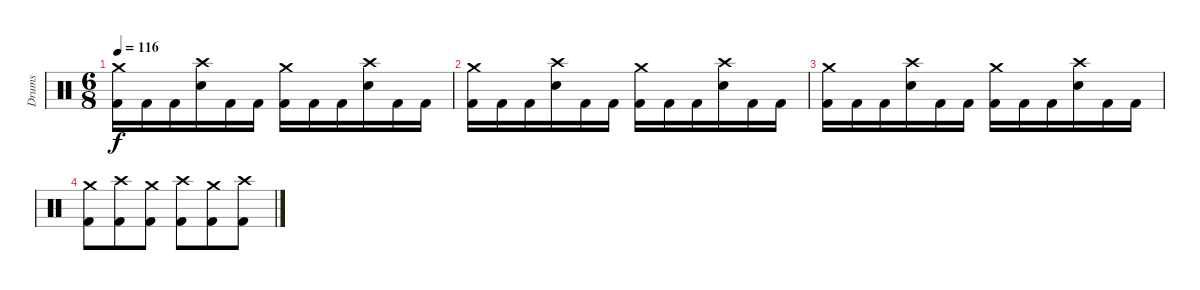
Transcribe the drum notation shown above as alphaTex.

\track ("Drums" "Drums") {instrument percussion}
\staff {score}
\articulation defaults
\ts (6 8)
\tempo 116
\clef neutral
\ks c
("Crash medium (hit)" "Kick (hit) 2").16{dy f} "Kick (hit) 2".16 "Kick (hit) 2".16 ("Crash high (hit)" "Electric Snare (hit)").16 "Kick (hit) 2".16 "Kick (hit) 2".16 ("Crash medium (hit)" "Kick (hit) 2").16 "Kick (hit) 2".16 "Kick (hit) 2".16 ("Crash high (hit)" "Electric Snare (hit)").16 "Kick (hit) 2".16 "Kick (hit) 2".16 |
("Crash medium (hit)" "Kick (hit) 2").16 "Kick (hit) 2".16 "Kick (hit) 2".16 ("Crash high (hit)" "Electric Snare (hit)").16 "Kick (hit) 2".16 "Kick (hit) 2".16 ("Crash medium (hit)" "Kick (hit) 2").16 "Kick (hit) 2".16 "Kick (hit) 2".16 ("Crash high (hit)" "Electric Snare (hit)").16 "Kick (hit) 2".16 "Kick (hit) 2".16 |
("Crash medium (hit)" "Kick (hit) 2").16 "Kick (hit) 2".16 "Kick (hit) 2".16 ("Crash high (hit)" "Electric Snare (hit)").16 "Kick (hit) 2".16 "Kick (hit) 2".16 ("Crash medium (hit)" "Kick (hit) 2").16 "Kick (hit) 2".16 "Kick (hit) 2".16 ("Crash high (hit)" "Electric Snare (hit)").16 "Kick (hit) 2".16 "Kick (hit) 2".16 |
("Crash medium (hit)" "Kick (hit) 2").8 ("Crash high (hit)" "Kick (hit) 2").8 ("Crash medium (hit)" "Kick (hit) 2").8 ("Crash high (hit)" "Kick (hit) 2").8 ("Crash medium (hit)" "Kick (hit) 2").8 ("Crash high (hit)" "Kick (hit) 2").8
